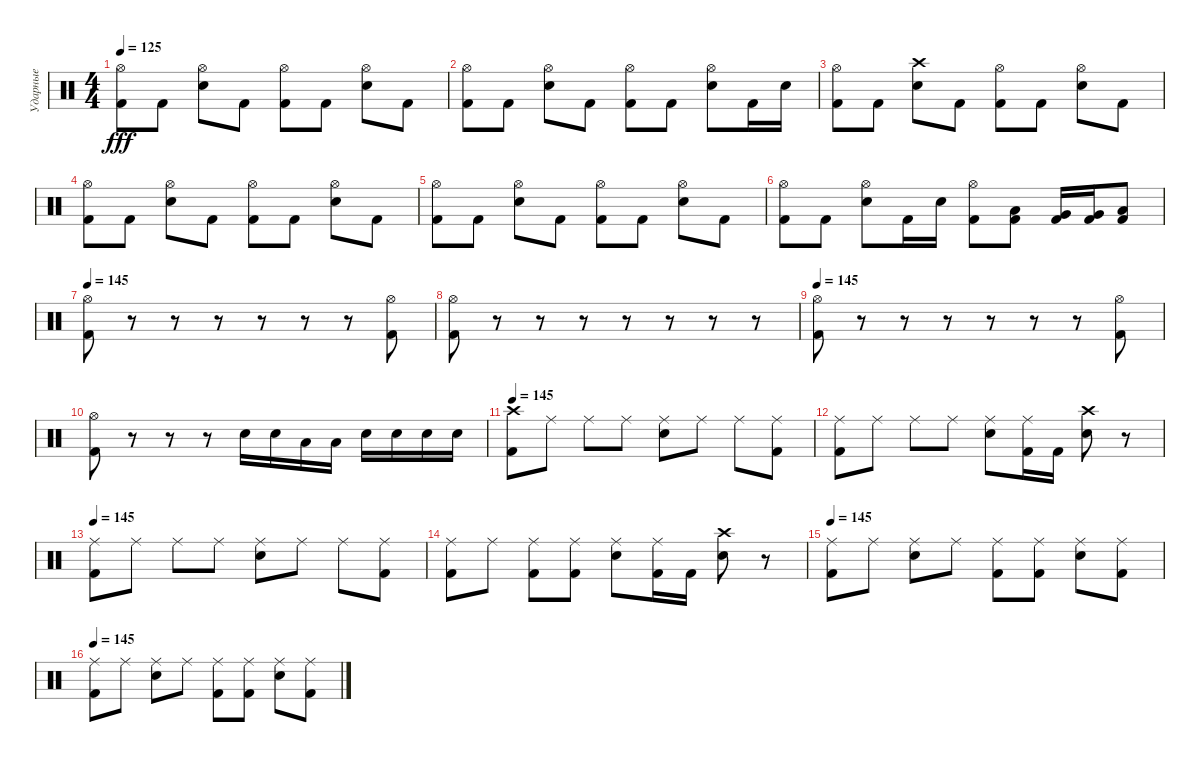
\track ("Ударные" "Ударные") {instrument percussion}
\staff {score}
\articulation defaults
\ts (4 4)
\tempo 125
\clef neutral
\ks c
("Hi-Hat (open)" "Kick (hit) 2").8{dy fff} "Kick (hit) 2".8 ("Hi-Hat (open)" "Electric Snare (hit)").8 "Kick (hit) 2".8 ("Hi-Hat (open)" "Kick (hit) 2").8 "Kick (hit) 2".8 ("Hi-Hat (open)" "Electric Snare (hit)").8 "Kick (hit) 2".8 |
("Hi-Hat (open)" "Kick (hit) 2").8 "Kick (hit) 2".8 ("Hi-Hat (open)" "Electric Snare (hit)").8 "Kick (hit) 2".8 ("Hi-Hat (open)" "Kick (hit) 2").8 "Kick (hit) 2".8 ("Hi-Hat (open)" "Electric Snare (hit)").8 "Kick (hit) 2".16 "Electric Snare (hit)".16 |
("Hi-Hat (open)" "Kick (hit) 2").8 "Kick (hit) 2".8 ("Crash high (hit)" "Electric Snare (hit)").8 "Kick (hit) 2".8 ("Hi-Hat (open)" "Kick (hit) 2").8 "Kick (hit) 2".8 ("Hi-Hat (open)" "Electric Snare (hit)").8 "Kick (hit) 2".8 |
("Hi-Hat (open)" "Kick (hit) 2").8 "Kick (hit) 2".8 ("Hi-Hat (open)" "Electric Snare (hit)").8 "Kick (hit) 2".8 ("Hi-Hat (open)" "Kick (hit) 2").8 "Kick (hit) 2".8 ("Hi-Hat (open)" "Electric Snare (hit)").8 "Kick (hit) 2".8 |
("Hi-Hat (open)" "Kick (hit) 2").8 "Kick (hit) 2".8 ("Hi-Hat (open)" "Electric Snare (hit)").8 "Kick (hit) 2".8 ("Hi-Hat (open)" "Kick (hit) 2").8 "Kick (hit) 2".8 ("Hi-Hat (open)" "Electric Snare (hit)").8 "Kick (hit) 2".8 |
("Hi-Hat (open)" "Kick (hit) 2").8 "Kick (hit) 2".8 ("Hi-Hat (open)" "Electric Snare (hit)").8 "Kick (hit) 2".16 "Electric Snare (hit)".16 ("Hi-Hat (open)" "Kick (hit) 2").8 ("Low Tom (hit)" "Kick (hit) 2").8 ("Very Low Tom (hit)" "Kick (hit) 2").16 ("Very Low Tom (hit)" "Kick (hit) 2").16 ("Low Floor Tom (hit)" "Kick (hit) 2").8 |
\tempo 145
("Hi-Hat (open)" "Kick (hit) 2").8 r.8{volume 0} r.8 r.8 r.8 r.8 r.8 ("Hi-Hat (open)" "Kick (hit) 2").8{volume 16} |
("Hi-Hat (open)" "Kick (hit) 2").8 r.8{volume 0} r.8 r.8 r.8 r.8 r.8 r.8 |
\tempo 145
("Hi-Hat (open)" "Kick (hit) 2").8{volume 16} r.8{volume 0} r.8 r.8 r.8 r.8 r.8 ("Hi-Hat (open)" "Kick (hit) 2").8{volume 16} |
("Hi-Hat (open)" "Kick (hit) 2").8 r.8{volume 0} r.8 r.8 "Electric Snare (hit)".16{volume 16} "Electric Snare (hit)".16 "Low Floor Tom (hit)".16 "Low Floor Tom (hit)".16 "Electric Snare (hit)".16 "Electric Snare (hit)".16 "Electric Snare (hit)".16 "Electric Snare (hit)".16 |
\tempo 145
("Crash high (hit)" "Kick (hit) 2").8 "Ride (middle)".8 "Ride (middle)".8 "Ride (middle)".8 ("Ride (middle)" "Electric Snare (hit)").8 "Ride (middle)".8 "Ride (middle)".8 ("Ride (middle)" "Kick (hit) 2").8 |
("Ride (middle)" "Kick (hit) 2").8 "Ride (middle)".8 "Ride (middle)".8 "Ride (middle)".8 ("Ride (middle)" "Electric Snare (hit)").8 ("Ride (middle)" "Kick (hit) 2").16 "Kick (hit) 2".16 ("Crash high (hit)" "Electric Snare (hit)").8 r.8 |
\tempo 145
("Ride (middle)" "Kick (hit) 2").8 "Ride (middle)".8 "Ride (middle)".8 "Ride (middle)".8 ("Ride (middle)" "Electric Snare (hit)").8 "Ride (middle)".8 "Ride (middle)".8 ("Ride (middle)" "Kick (hit) 2").8 |
("Ride (middle)" "Kick (hit) 2").8 "Ride (middle)".8 ("Ride (middle)" "Kick (hit) 2").8 ("Ride (middle)" "Kick (hit) 2").8 ("Ride (middle)" "Electric Snare (hit)").8 ("Ride (middle)" "Kick (hit) 2").16 "Kick (hit) 2".16 ("Crash high (hit)" "Electric Snare (hit)").8 r.8 |
\tempo 145
("Ride (middle)" "Kick (hit) 2").8 "Ride (middle)".8 ("Ride (middle)" "Electric Snare (hit)").8 "Ride (middle)".8 ("Ride (middle)" "Kick (hit) 2").8 ("Ride (middle)" "Kick (hit) 2").8 ("Ride (middle)" "Electric Snare (hit)").8 ("Ride (middle)" "Kick (hit) 2").8 |
\tempo 145
("Ride (middle)" "Kick (hit) 2").8 "Ride (middle)".8 ("Ride (middle)" "Electric Snare (hit)").8 "Ride (middle)".8 ("Ride (middle)" "Kick (hit) 2").8 ("Ride (middle)" "Kick (hit) 2").8 ("Ride (middle)" "Electric Snare (hit)").8 ("Ride (middle)" "Kick (hit) 2").8
